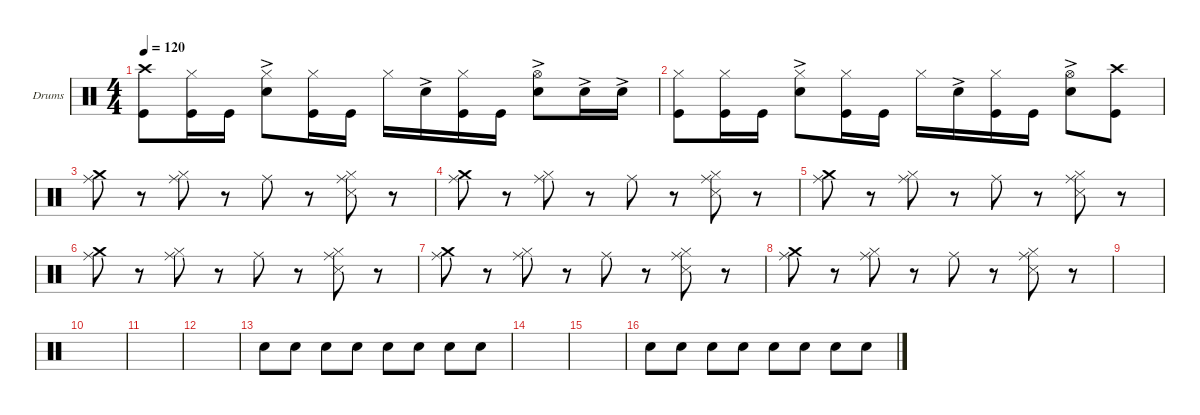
\defaultSystemsLayout 4
\hideDynamics
\bracketExtendMode groupsimilarinstruments
\firstSystemTrackNameOrientation horizontal
\otherSystemsTrackNameOrientation horizontal
\track ("Drumkit" "Drums") {instrument percussion}
\staff {score}
\articulation defaults
\ts (4 4)
\tempo 120
\clef neutral
\ks c
("Kick (hit)" "Crash high (hit)").8{dy f} ("Kick (hit)" "Hi-Hat (closed)").16 "Kick (hit)".16 ("Snare (hit) 2"{ac} "Hi-Hat (closed)").8 ("Kick (hit)" "Hi-Hat (closed)").16 "Kick (hit)".16 "Hi-Hat (closed)".16 "Snare (hit) 2"{ac}.16 ("Kick (hit)" "Hi-Hat (closed)").16 "Kick (hit)".16 ("Snare (hit) 2"{ac} "Hi-Hat (open)").8 "Snare (hit) 2"{ac}.16 "Snare (hit) 2"{ac}.16 |
("Kick (hit)" "Hi-Hat (closed)").8 ("Kick (hit)" "Hi-Hat (closed)").16 "Kick (hit)".16 ("Snare (hit) 2"{ac} "Hi-Hat (closed)").8 ("Kick (hit)" "Hi-Hat (closed)").16 "Kick (hit)".16 "Hi-Hat (closed)".16 "Snare (hit) 2"{ac}.16 ("Kick (hit)" "Hi-Hat (closed)").16 "Kick (hit)".16 ("Snare (hit) 2"{ac} "Hi-Hat (open)").8 ("Kick (hit)" "Crash high (hit)").8 |
("Ride (middle)" "Crash medium (hit)").8{dy mf} r.8 ("Hi-Hat (closed)" "Ride (middle)").8{dy mp} r.8 "Ride (middle)".8{dy mf} r.8 ("Hi-Hat (closed)" "Snare (side stick) 3" "Ride (middle)").8{dy mp} r.8 |
("Ride (middle)" "Crash medium (hit)").8{dy mf} r.8 ("Hi-Hat (closed)" "Ride (middle)").8{dy mp} r.8 "Ride (middle)".8{dy mf} r.8 ("Hi-Hat (closed)" "Snare (side stick) 3" "Ride (middle)").8{dy mp} r.8 |
("Ride (middle)" "Crash medium (hit)").8{dy mf} r.8 ("Hi-Hat (closed)" "Ride (middle)").8{dy mp} r.8 "Ride (middle)".8{dy mf} r.8 ("Hi-Hat (closed)" "Snare (side stick) 3" "Ride (middle)").8{dy mp} r.8 |
("Ride (middle)" "Crash medium (hit)").8{dy mf} r.8 ("Hi-Hat (closed)" "Ride (middle)").8{dy mp} r.8 "Ride (middle)".8{dy mf} r.8 ("Hi-Hat (closed)" "Snare (side stick) 3" "Ride (middle)").8{dy mp} r.8 |
("Ride (middle)" "Crash medium (hit)").8{dy mf} r.8 ("Hi-Hat (closed)" "Ride (middle)").8{dy mp} r.8 "Ride (middle)".8{dy mf} r.8 ("Hi-Hat (closed)" "Snare (side stick) 3" "Ride (middle)").8{dy mp} r.8 |
("Ride (middle)" "Crash medium (hit)").8{dy mf} r.8 ("Hi-Hat (closed)" "Ride (middle)").8{dy mp} r.8 "Ride (middle)".8{dy mf} r.8 ("Hi-Hat (closed)" "Snare (side stick) 3" "Ride (middle)").8{dy mp} r.8 |
|
|
|
|
"Snare (hit) 2".8{dy mf} "Snare (hit) 2".8 "Snare (hit) 2".8 "Snare (hit) 2".8 "Snare (hit) 2".8 "Snare (hit) 2".8 "Snare (hit) 2".8 "Snare (hit) 2".8 |
|
|
"Snare (hit) 2".8 "Snare (hit) 2".8 "Snare (hit) 2".8 "Snare (hit) 2".8 "Snare (hit) 2".8 "Snare (hit) 2".8 "Snare (hit) 2".8 "Snare (hit) 2".8
